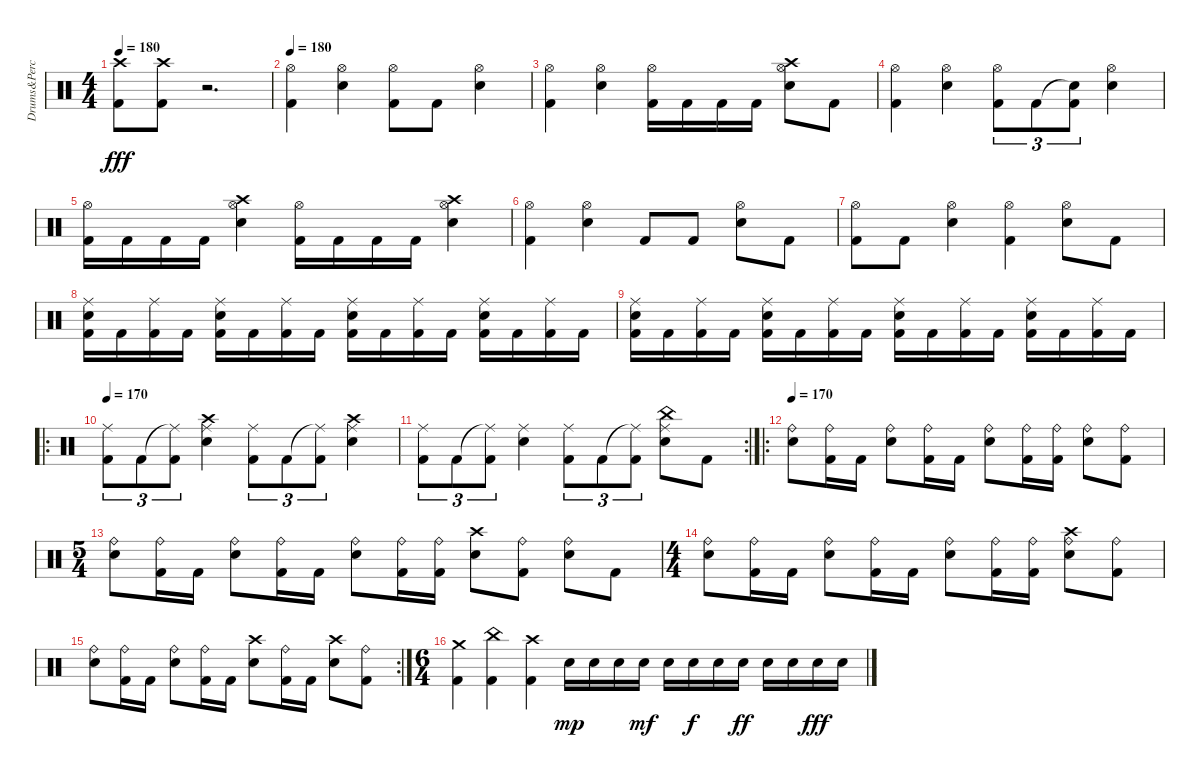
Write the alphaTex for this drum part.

\track ("Drums&Percusion" "Drums&Perc") {instrument percussion}
\staff {score}
\articulation defaults
\ts (4 4)
\tempo 180
\clef neutral
\ks c
("Crash high (hit)" "Kick (hit) 2").8{dy fff} ("Crash high (hit)" "Kick (hit) 2").8 r.2{d} |
\tempo 180
("Hi-Hat (open)" "Kick (hit) 2").4 ("Hi-Hat (open)" "Snare (hit) 2").4 ("Hi-Hat (open)" "Kick (hit) 2").8 "Kick (hit) 2".8 ("Hi-Hat (open)" "Snare (hit) 2").4 |
("Hi-Hat (open)" "Kick (hit) 2").4 ("Hi-Hat (open)" "Snare (hit) 2").4 ("Hi-Hat (open)" "Kick (hit) 2").16 "Kick (hit) 2".16 "Kick (hit) 2".16 "Kick (hit) 2".16 ("Hi-Hat (open)" "Crash high (hit)" "Snare (hit) 2").8 "Kick (hit) 2".8 |
("Hi-Hat (open)" "Kick (hit) 2").4 ("Hi-Hat (open)" "Snare (hit) 2").4 ("Hi-Hat (open)" "Kick (hit) 2").8{tu (3 2)} "Kick (hit) 2".8{tu (3 2)} ("Snare (hit)"{t} "Kick (hit) 2").8{tu (3 2)} ("Hi-Hat (open)" "Snare (hit) 2").4 |
("Hi-Hat (open)" "Kick (hit) 2").16 "Kick (hit) 2".16 "Kick (hit) 2".16 "Kick (hit) 2".16 ("Hi-Hat (open)" "Crash high (hit)" "Snare (hit) 2").4 ("Hi-Hat (open)" "Kick (hit) 2").16 "Kick (hit) 2".16 "Kick (hit) 2".16 "Kick (hit) 2".16 ("Hi-Hat (open)" "Crash high (hit)" "Snare (hit) 2").4 |
("Hi-Hat (open)" "Kick (hit) 2").4 ("Hi-Hat (open)" "Snare (hit) 2").4 "Kick (hit) 2".8 "Kick (hit) 2".8 ("Hi-Hat (open)" "Snare (hit) 2").8 "Kick (hit) 2".8 |
("Hi-Hat (open)" "Kick (hit) 2").8 "Kick (hit) 2".8 ("Hi-Hat (open)" "Snare (hit) 2").4 ("Hi-Hat (open)" "Kick (hit) 2").4 ("Hi-Hat (open)" "Snare (hit) 2").8 "Kick (hit) 2".8 |
("Ride (middle)" "Snare (hit) 2" "Kick (hit) 2").16 "Kick (hit) 2".16 ("Ride (middle)" "Kick (hit) 2").16 "Kick (hit) 2".16 ("Ride (middle)" "Snare (hit) 2" "Kick (hit) 2").16 "Kick (hit) 2".16 ("Ride (middle)" "Kick (hit) 2").16 "Kick (hit) 2".16 ("Ride (middle)" "Snare (hit) 2" "Kick (hit) 2").16 "Kick (hit) 2".16 ("Ride (middle)" "Kick (hit) 2").16 "Kick (hit) 2".16 ("Ride (middle)" "Snare (hit) 2" "Kick (hit) 2").16 "Kick (hit) 2".16 ("Ride (middle)" "Kick (hit) 2").16 "Kick (hit) 2".16 |
("Ride (middle)" "Snare (hit) 2" "Kick (hit) 2").16 "Kick (hit) 2".16 ("Ride (middle)" "Kick (hit) 2").16 "Kick (hit) 2".16 ("Ride (middle)" "Snare (hit) 2" "Kick (hit) 2").16 "Kick (hit) 2".16 ("Ride (middle)" "Kick (hit) 2").16 "Kick (hit) 2".16 ("Ride (middle)" "Snare (hit) 2" "Kick (hit) 2").16 "Kick (hit) 2".16 ("Ride (middle)" "Kick (hit) 2").16 "Kick (hit) 2".16 ("Ride (middle)" "Snare (hit) 2" "Kick (hit) 2").16 "Kick (hit) 2".16 ("Ride (middle)" "Kick (hit) 2").16 "Kick (hit) 2".16 |
\ro
\tempo 170
("Ride (middle)" "Kick (hit) 2").8{tu (3 2)} "Kick (hit) 2".8{tu (3 2)} ("Ride (middle)"{t} "Kick (hit) 2").8{tu (3 2)} ("Ride (middle)" "Crash high (hit)" "Snare (hit) 2").4 ("Ride (middle)" "Kick (hit) 2").8{tu (3 2)} "Kick (hit) 2".8{tu (3 2)} ("Ride (middle)"{t} "Kick (hit) 2").8{tu (3 2)} ("Ride (middle)" "Crash high (hit)" "Snare (hit) 2").4 |
\rc 2
("Ride (middle)" "Kick (hit) 2").8{tu (3 2)} "Kick (hit) 2".8{tu (3 2)} ("Ride (middle)"{t} "Kick (hit) 2").8{tu (3 2)} ("Ride (middle)" "Snare (hit) 2").4 ("Ride (middle)" "Kick (hit) 2").8{tu (3 2)} "Kick (hit) 2".8{tu (3 2)} ("Ride (middle)"{t} "Kick (hit) 2").8{tu (3 2)} ("Ride (middle)" "China (hit)" "Snare (hit) 2").8 "Kick (hit) 2".8 |
\ro
\tempo 170
("Ride (bell)" "Snare (hit) 2").8 ("Ride (bell)" "Kick (hit) 2").16 "Kick (hit) 2".16 ("Ride (bell)" "Snare (hit) 2").8 ("Ride (bell)" "Kick (hit) 2").16 "Kick (hit) 2".16 ("Ride (bell)" "Snare (hit) 2").8 ("Ride (bell)" "Kick (hit) 2").16 ("Ride (bell)" "Kick (hit) 2").16 ("Ride (bell)" "Snare (hit) 2").8 ("Ride (bell)" "Kick (hit) 2").8 |
\ts (5 4)
("Ride (bell)" "Snare (hit) 2").8 ("Ride (bell)" "Kick (hit) 2").16 "Kick (hit) 2".16 ("Ride (bell)" "Snare (hit) 2").8 ("Ride (bell)" "Kick (hit) 2").16 "Kick (hit) 2".16 ("Ride (bell)" "Snare (hit) 2").8 ("Ride (bell)" "Kick (hit) 2").16 ("Ride (bell)" "Kick (hit) 2").16 ("Crash high (hit)" "Snare (hit) 2").8 ("Ride (bell)" "Kick (hit) 2").8 ("Ride (bell)" "Snare (hit) 2").8 "Kick (hit) 2".8 |
\ts (4 4)
("Ride (bell)" "Snare (hit) 2").8 ("Ride (bell)" "Kick (hit) 2").16 "Kick (hit) 2".16 ("Ride (bell)" "Snare (hit) 2").8 ("Ride (bell)" "Kick (hit) 2").16 "Kick (hit) 2".16 ("Ride (bell)" "Snare (hit) 2").8 ("Ride (bell)" "Kick (hit) 2").16 ("Ride (bell)" "Kick (hit) 2").16 ("Ride (bell)" "Crash high (hit)" "Snare (hit) 2").8 ("Ride (bell)" "Kick (hit) 2").8 |
\rc 2
("Ride (bell)" "Snare (hit) 2").8 ("Ride (bell)" "Kick (hit) 2").16 "Kick (hit) 2".16 ("Ride (bell)" "Snare (hit) 2").8 ("Ride (bell)" "Kick (hit) 2").16 "Kick (hit) 2".16 ("Crash high (hit)" "Snare (hit) 2").8 ("Ride (bell)" "Kick (hit) 2").16 "Kick (hit) 2".16 ("Crash high (hit)" "Snare (hit) 2").8 ("Ride (bell)" "Kick (hit) 2").8 |
\ts (6 4)
("Crash medium (hit)" "Kick (hit) 2").4 ("China (hit)" "Kick (hit) 2").4 ("Crash high (hit)" "Kick (hit) 2").4 "Snare (hit) 2".16{dy mp} "Snare (hit) 2".16 "Snare (hit) 2".16 "Snare (hit) 2".16{dy mf} "Snare (hit) 2".16 "Snare (hit) 2".16{dy f} "Snare (hit) 2".16 "Snare (hit) 2".16{dy ff} "Snare (hit) 2".16 "Snare (hit) 2".16 "Snare (hit) 2".16{dy fff} "Snare (hit) 2".16
